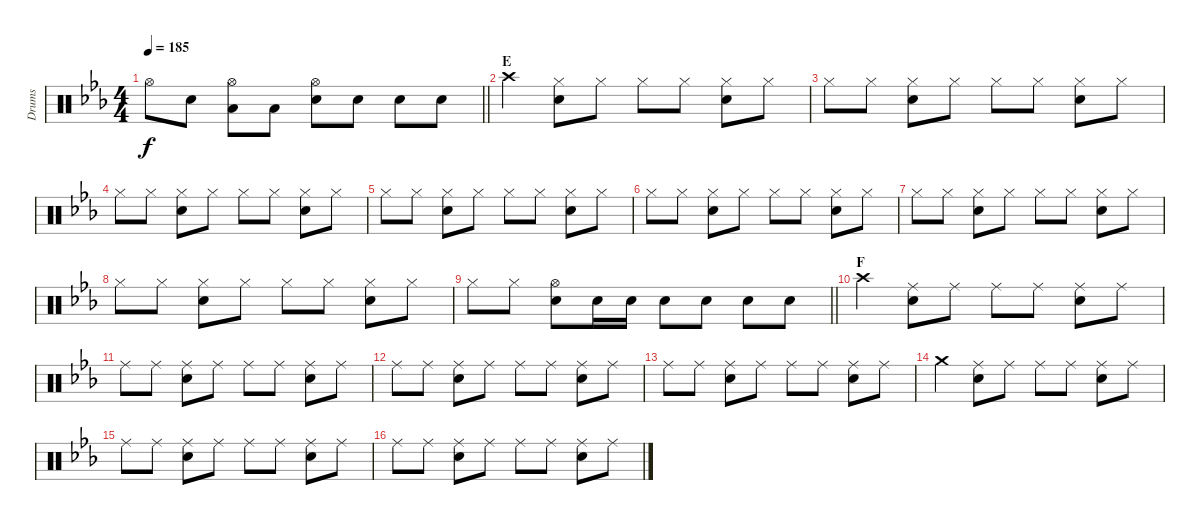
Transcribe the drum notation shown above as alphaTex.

\track ("Drums" "Drums") {instrument percussion}
\staff {score}
\articulation defaults
\ts (4 4)
\tempo 185
\clef neutral
\barLineRight lightlight
\ks eb "Hi-Hat (open)".8{dy f} "Snare (hit) 2".8
("Hi-Hat (open)" "Low Tom (hit)").8 "Low Tom (hit)".8 ("Hi-Hat (open)" "Snare (hit) 2").8 "Snare (hit) 2".8 "Snare (hit) 2".8 "Snare (hit) 2".8 |
\section ("" "E")
"Crash high (hit)".4 ("Hi-Hat (closed)" "Snare (hit) 2").8 "Hi-Hat (closed)".8 "Hi-Hat (closed)".8 "Hi-Hat (closed)".8 ("Hi-Hat (closed)" "Snare (hit) 2").8 "Hi-Hat (closed)".8 |
"Hi-Hat (closed)".8 "Hi-Hat (closed)".8 ("Hi-Hat (closed)" "Snare (hit) 2").8 "Hi-Hat (closed)".8 "Hi-Hat (closed)".8 "Hi-Hat (closed)".8 ("Hi-Hat (closed)" "Snare (hit) 2").8 "Hi-Hat (closed)".8 |
"Hi-Hat (closed)".8 "Hi-Hat (closed)".8 ("Hi-Hat (closed)" "Snare (hit) 2").8 "Hi-Hat (closed)".8 "Hi-Hat (closed)".8 "Hi-Hat (closed)".8 ("Hi-Hat (closed)" "Snare (hit) 2").8 "Hi-Hat (closed)".8 |
"Hi-Hat (closed)".8 "Hi-Hat (closed)".8 ("Hi-Hat (closed)" "Snare (hit) 2").8 "Hi-Hat (closed)".8 "Hi-Hat (closed)".8 "Hi-Hat (closed)".8 ("Hi-Hat (closed)" "Snare (hit) 2").8 "Hi-Hat (closed)".8 |
"Hi-Hat (closed)".8 "Hi-Hat (closed)".8 ("Hi-Hat (closed)" "Snare (hit) 2").8 "Hi-Hat (closed)".8 "Hi-Hat (closed)".8 "Hi-Hat (closed)".8 ("Hi-Hat (closed)" "Snare (hit) 2").8 "Hi-Hat (closed)".8 |
"Hi-Hat (closed)".8 "Hi-Hat (closed)".8 ("Hi-Hat (closed)" "Snare (hit) 2").8 "Hi-Hat (closed)".8 "Hi-Hat (closed)".8 "Hi-Hat (closed)".8 ("Hi-Hat (closed)" "Snare (hit) 2").8 "Hi-Hat (closed)".8 |
"Hi-Hat (closed)".8 "Hi-Hat (closed)".8 ("Hi-Hat (closed)" "Snare (hit) 2").8 "Hi-Hat (closed)".8 "Hi-Hat (closed)".8 "Hi-Hat (closed)".8 ("Hi-Hat (closed)" "Snare (hit) 2").8 "Hi-Hat (closed)".8 |
\barLineRight lightlight "Hi-Hat (closed)".8 "Hi-Hat (closed)".8
("Hi-Hat (open)" "Snare (hit) 2").8 "Snare (hit) 2".16 "Snare (hit) 2".16 "Snare (hit) 2".8 "Snare (hit) 2".8 "Snare (hit) 2".8 "Snare (hit) 2".8 |
\section ("" "F")
"Crash high (hit)".4 ("Ride (middle)" "Snare (hit) 2").8 "Ride (middle)".8 "Ride (middle)".8 "Ride (middle)".8 ("Ride (middle)" "Snare (hit) 2").8 "Ride (middle)".8 |
"Ride (middle)".8 "Ride (middle)".8 ("Ride (middle)" "Snare (hit) 2").8 "Ride (middle)".8 "Ride (middle)".8 "Ride (middle)".8 ("Ride (middle)" "Snare (hit) 2").8 "Ride (middle)".8 |
"Ride (middle)".8 "Ride (middle)".8 ("Ride (middle)" "Snare (hit) 2").8 "Ride (middle)".8 "Ride (middle)".8 "Ride (middle)".8 ("Ride (middle)" "Snare (hit) 2").8 "Ride (middle)".8 |
"Ride (middle)".8 "Ride (middle)".8 ("Ride (middle)" "Snare (hit) 2").8 "Ride (middle)".8 "Ride (middle)".8 "Ride (middle)".8 ("Ride (middle)" "Snare (hit) 2").8 "Ride (middle)".8 |
"Crash medium (hit)".4 ("Ride (middle)" "Snare (hit) 2").8 "Ride (middle)".8 "Ride (middle)".8 "Ride (middle)".8 ("Ride (middle)" "Snare (hit) 2").8 "Ride (middle)".8 |
"Ride (middle)".8 "Ride (middle)".8 ("Ride (middle)" "Snare (hit) 2").8 "Ride (middle)".8 "Ride (middle)".8 "Ride (middle)".8 ("Ride (middle)" "Snare (hit) 2").8 "Ride (middle)".8 |
"Ride (middle)".8 "Ride (middle)".8 ("Ride (middle)" "Snare (hit) 2").8 "Ride (middle)".8 "Ride (middle)".8 "Ride (middle)".8 ("Ride (middle)" "Snare (hit) 2").8 "Ride (middle)".8
